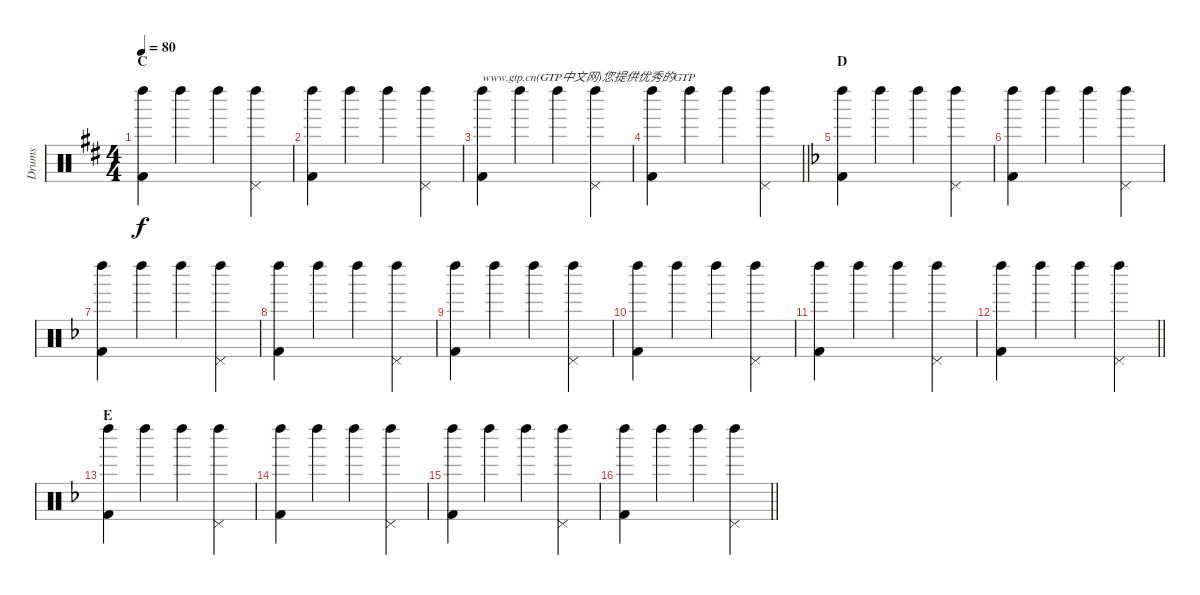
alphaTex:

\track ("Drums" "Drums") {instrument percussion}
\staff {score}
\articulation defaults
\ts (4 4)
\section ("" "C")
\tempo 80
\clef neutral
\ks d
("Left Maraca (hit)" "Kick (hit) 2").4{dy f} "Left Maraca (hit)".4 "Left Maraca (hit)".4 ("Left Maraca (hit)" "Pedal Hi-Hat (hit)").4 |
("Left Maraca (hit)" "Kick (hit) 2").4 "Left Maraca (hit)".4 "Left Maraca (hit)".4 ("Left Maraca (hit)" "Pedal Hi-Hat (hit)").4 |
("Left Maraca (hit)" "Kick (hit) 2").4{txt "www.gtp.cn(GTP中文网)您提供优秀的GTP"} "Left Maraca (hit)".4 "Left Maraca (hit)".4 ("Left Maraca (hit)" "Pedal Hi-Hat (hit)").4 |
\barLineRight lightlight
("Left Maraca (hit)" "Kick (hit) 2").4 "Left Maraca (hit)".4 "Left Maraca (hit)".4 ("Left Maraca (hit)" "Pedal Hi-Hat (hit)").4 |
\section ("" "D")
\ks f
("Left Maraca (hit)" "Kick (hit) 2").4 "Left Maraca (hit)".4 "Left Maraca (hit)".4 ("Left Maraca (hit)" "Pedal Hi-Hat (hit)").4 |
("Left Maraca (hit)" "Kick (hit) 2").4 "Left Maraca (hit)".4 "Left Maraca (hit)".4 ("Left Maraca (hit)" "Pedal Hi-Hat (hit)").4 |
("Left Maraca (hit)" "Kick (hit) 2").4 "Left Maraca (hit)".4 "Left Maraca (hit)".4 ("Left Maraca (hit)" "Pedal Hi-Hat (hit)").4 |
("Left Maraca (hit)" "Kick (hit) 2").4 "Left Maraca (hit)".4 "Left Maraca (hit)".4 ("Left Maraca (hit)" "Pedal Hi-Hat (hit)").4 |
("Left Maraca (hit)" "Kick (hit) 2").4 "Left Maraca (hit)".4 "Left Maraca (hit)".4 ("Left Maraca (hit)" "Pedal Hi-Hat (hit)").4 |
("Left Maraca (hit)" "Kick (hit) 2").4 "Left Maraca (hit)".4 "Left Maraca (hit)".4 ("Left Maraca (hit)" "Pedal Hi-Hat (hit)").4 |
("Left Maraca (hit)" "Kick (hit) 2").4 "Left Maraca (hit)".4 "Left Maraca (hit)".4 ("Left Maraca (hit)" "Pedal Hi-Hat (hit)").4 |
\barLineRight lightlight
("Left Maraca (hit)" "Kick (hit) 2").4 "Left Maraca (hit)".4 "Left Maraca (hit)".4 ("Left Maraca (hit)" "Pedal Hi-Hat (hit)").4 |
\section ("" "E")
("Left Maraca (hit)" "Kick (hit) 2").4 "Left Maraca (hit)".4 "Left Maraca (hit)".4 ("Left Maraca (hit)" "Pedal Hi-Hat (hit)").4 |
("Left Maraca (hit)" "Kick (hit) 2").4 "Left Maraca (hit)".4 "Left Maraca (hit)".4 ("Left Maraca (hit)" "Pedal Hi-Hat (hit)").4 |
("Left Maraca (hit)" "Kick (hit) 2").4 "Left Maraca (hit)".4 "Left Maraca (hit)".4 ("Left Maraca (hit)" "Pedal Hi-Hat (hit)").4 |
\barLineRight lightlight
("Left Maraca (hit)" "Kick (hit) 2").4 "Left Maraca (hit)".4 "Left Maraca (hit)".4 ("Left Maraca (hit)" "Pedal Hi-Hat (hit)").4
